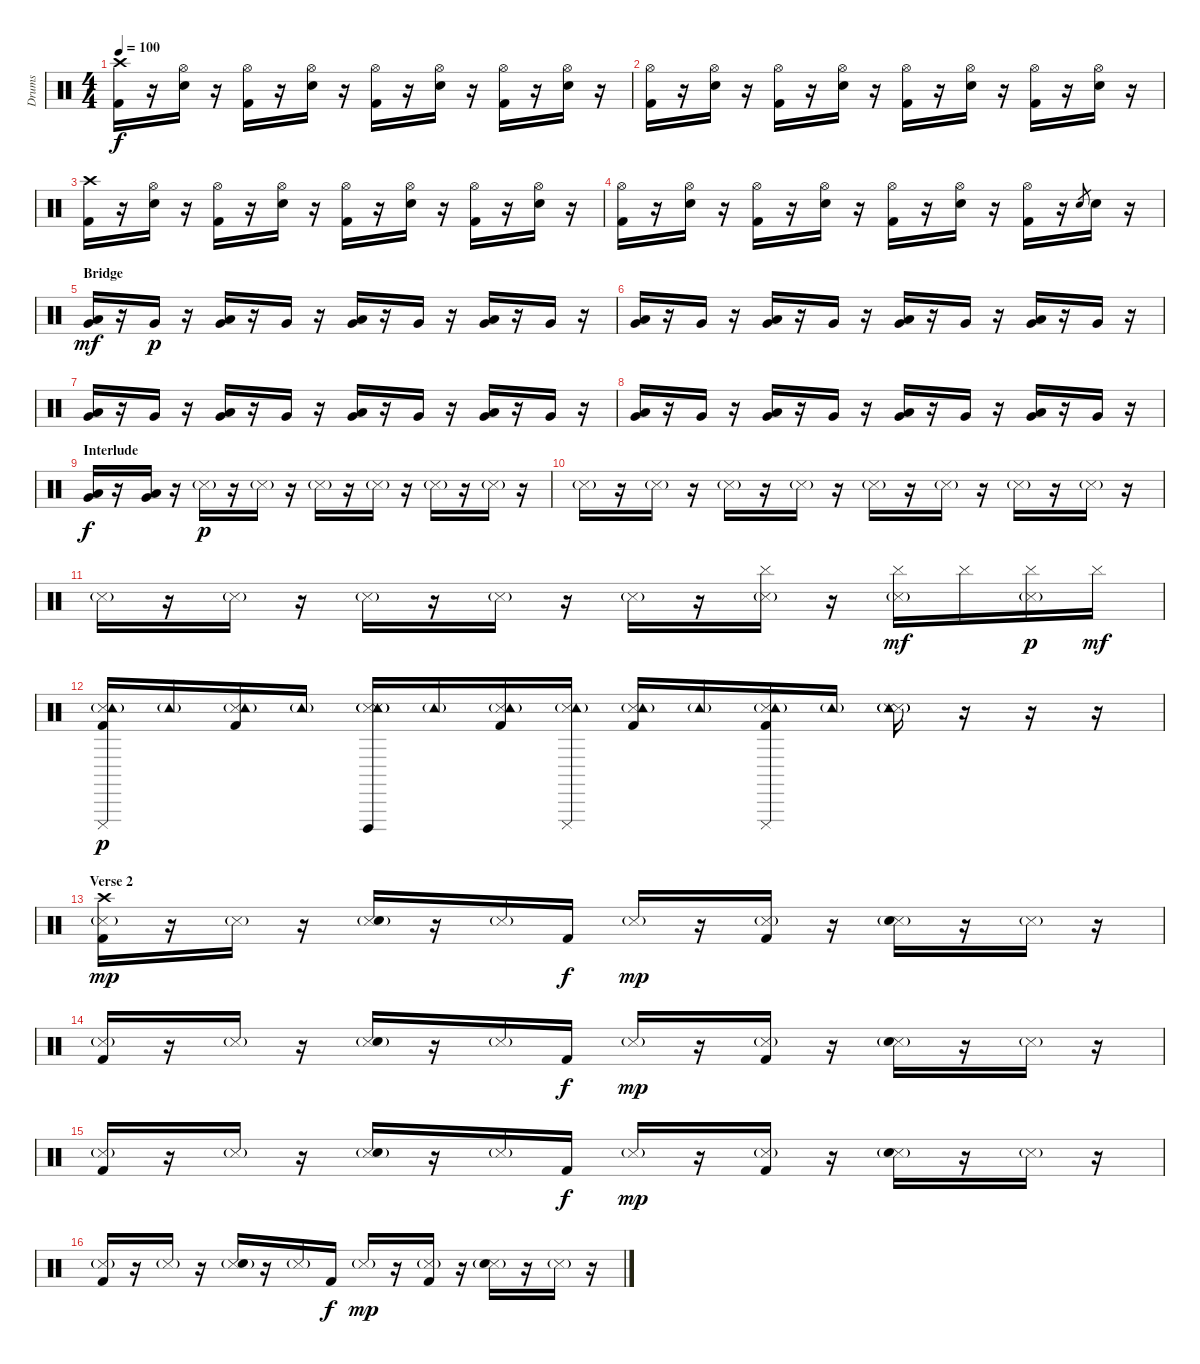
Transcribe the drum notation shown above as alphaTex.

\track ("Drums" "Drums") {instrument percussion}
\staff {score}
\articulation defaults
\ts (4 4)
\tempo 100
\clef neutral
\ks c
("Crash high (hit)" "Kick (hit) 2").16{dy f} r.16 ("Hi-Hat (open)" "Electric Snare (hit)").16 r.16 ("Hi-Hat (open)" "Kick (hit) 2").16 r.16 ("Hi-Hat (open)" "Electric Snare (hit)").16 r.16 ("Hi-Hat (open)" "Kick (hit) 2").16 r.16 ("Hi-Hat (open)" "Electric Snare (hit)").16 r.16 ("Hi-Hat (open)" "Kick (hit) 2").16 r.16 ("Hi-Hat (open)" "Electric Snare (hit)").16 r.16 |
("Hi-Hat (open)" "Kick (hit) 2").16 r.16 ("Hi-Hat (open)" "Electric Snare (hit)").16 r.16 ("Hi-Hat (open)" "Kick (hit) 2").16 r.16 ("Hi-Hat (open)" "Electric Snare (hit)").16 r.16 ("Hi-Hat (open)" "Kick (hit) 2").16 r.16 ("Hi-Hat (open)" "Electric Snare (hit)").16 r.16 ("Hi-Hat (open)" "Kick (hit) 2").16 r.16 ("Hi-Hat (open)" "Electric Snare (hit)").16 r.16 |
("Crash high (hit)" "Kick (hit) 2").16 r.16 ("Hi-Hat (open)" "Electric Snare (hit)").16 r.16 ("Hi-Hat (open)" "Kick (hit) 2").16 r.16 ("Hi-Hat (open)" "Electric Snare (hit)").16 r.16 ("Hi-Hat (open)" "Kick (hit) 2").16 r.16 ("Hi-Hat (open)" "Electric Snare (hit)").16 r.16 ("Hi-Hat (open)" "Kick (hit) 2").16 r.16 ("Hi-Hat (open)" "Electric Snare (hit)").16 r.16 |
("Hi-Hat (open)" "Kick (hit) 2").16 r.16 ("Hi-Hat (open)" "Electric Snare (hit)").16 r.16 ("Hi-Hat (open)" "Kick (hit) 2").16 r.16 ("Hi-Hat (open)" "Electric Snare (hit)").16 r.16 ("Hi-Hat (open)" "Kick (hit) 2").16 r.16 ("Hi-Hat (open)" "Electric Snare (hit)").16 r.16 ("Hi-Hat (open)" "Kick (hit) 2").16 r.16 "Electric Snare (hit)".8{gr} "Electric Snare (hit)".16 r.16 |
\section ("" "Bridge")
("Low Tom (hit)" "Very Low Tom (hit)").16{dy mf} r.16 "Very Low Tom (hit)".16{dy p} r.16 ("Low Tom (hit)" "Very Low Tom (hit)").16 r.16 "Very Low Tom (hit)".16 r.16 ("Low Tom (hit)" "Very Low Tom (hit)").16 r.16 "Very Low Tom (hit)".16 r.16 ("Low Tom (hit)" "Very Low Tom (hit)").16 r.16 "Very Low Tom (hit)".16 r.16 |
("Low Tom (hit)" "Very Low Tom (hit)").16 r.16 "Very Low Tom (hit)".16 r.16 ("Low Tom (hit)" "Very Low Tom (hit)").16 r.16 "Very Low Tom (hit)".16 r.16 ("Low Tom (hit)" "Very Low Tom (hit)").16 r.16 "Very Low Tom (hit)".16 r.16 ("Low Tom (hit)" "Very Low Tom (hit)").16 r.16 "Very Low Tom (hit)".16 r.16 |
("Low Tom (hit)" "Very Low Tom (hit)").16 r.16 "Very Low Tom (hit)".16 r.16 ("Low Tom (hit)" "Very Low Tom (hit)").16 r.16 "Very Low Tom (hit)".16 r.16 ("Low Tom (hit)" "Very Low Tom (hit)").16 r.16 "Very Low Tom (hit)".16 r.16 ("Low Tom (hit)" "Very Low Tom (hit)").16 r.16 "Very Low Tom (hit)".16 r.16 |
("Low Tom (hit)" "Very Low Tom (hit)").16 r.16 "Very Low Tom (hit)".16 r.16 ("Low Tom (hit)" "Very Low Tom (hit)").16 r.16 "Very Low Tom (hit)".16 r.16 ("Low Tom (hit)" "Very Low Tom (hit)").16 r.16 "Very Low Tom (hit)".16 r.16 ("Low Tom (hit)" "Very Low Tom (hit)").16 r.16 "Very Low Tom (hit)".16 r.16 |
\section ("" "Interlude")
("Low Tom (hit)" "Very Low Tom (hit)").16{dy f} r.16 ("Low Tom (hit)" "Very Low Tom (hit)").16 r.16 "Metronome (hit)"{g}.16{dy p} r.16 "Metronome (hit)"{g}.16 r.16 "Metronome (hit)"{g}.16 r.16 "Metronome (hit)"{g}.16 r.16 "Metronome (hit)"{g}.16 r.16 "Metronome (hit)"{g}.16 r.16 |
"Metronome (hit)"{g}.16 r.16 "Metronome (hit)"{g}.16 r.16 "Metronome (hit)"{g}.16 r.16 "Metronome (hit)"{g}.16 r.16 "Metronome (hit)"{g}.16 r.16 "Metronome (hit)"{g}.16 r.16 "Metronome (hit)"{g}.16 r.16 "Metronome (hit)"{g}.16 r.16 |
"Metronome (hit)"{g}.16 r.16 "Metronome (hit)"{g}.16 r.16 "Metronome (hit)"{g}.16 r.16 "Metronome (hit)"{g}.16 r.16 "Metronome (hit)"{g}.16 r.16 ("Metronome (hit)"{g} "Cymbal (hit)").16 r.16 ("Metronome (hit)"{g} "Cymbal (hit)").16{dy mf} "Cymbal (hit)".16 ("Metronome (hit)"{g} "Cymbal (hit)").16{dy p} "Cymbal (hit)".16{dy mf} |
("Cuica (mute)" "Metronome (hit)"{g} "Tambourine (hit)"{g} "Kick (hit) 2").16{dy p} "Tambourine (hit)"{g}.16 ("Metronome (hit)"{g} "Tambourine (hit)"{g} "Kick (hit) 2").16 "Tambourine (hit)"{g}.16 ("Cuica (open)" "Metronome (hit)"{g} "Snare (side stick) 3" "Tambourine (hit)"{g}).16 "Tambourine (hit)"{g}.16 ("Metronome (hit)"{g} "Tambourine (hit)"{g} "Kick (hit) 2").16 ("Cuica (mute)" "Snare (side stick) 3" "Tambourine (hit)"{g}).16 ("Metronome (hit)"{g} "Tambourine (hit)"{g} "Kick (hit) 2").16 "Tambourine (hit)"{g}.16 ("Cuica (mute)" "Metronome (hit)"{g} "Tambourine (hit)"{g} "Kick (hit) 2").16 "Tambourine (hit)"{g}.16 ("Metronome (hit)"{g} "Snare (side stick) 3" "Tambourine (hit)"{g}).16 r.16 r.16 r.16 |
\section ("" "Verse 2")
("Crash high (hit)" "Metronome (hit)"{g} "Kick (hit) 2").16{dy mp} r.16 "Metronome (hit)"{g}.16 r.16 ("Metronome (hit)"{g} "Electric Snare (hit)").16 r.16 "Metronome (hit)"{g}.16 "Kick (hit) 2".16{dy f} "Metronome (hit)"{g}.16{dy mp} r.16 ("Metronome (hit)"{g} "Kick (hit) 2").16 r.16 ("Metronome (hit)"{g} "Electric Snare (hit)").16 r.16 "Metronome (hit)"{g}.16 r.16 |
("Metronome (hit)"{g} "Kick (hit) 2").16 r.16 "Metronome (hit)"{g}.16 r.16 ("Metronome (hit)"{g} "Electric Snare (hit)").16 r.16 "Metronome (hit)"{g}.16 "Kick (hit) 2".16{dy f} "Metronome (hit)"{g}.16{dy mp} r.16 ("Metronome (hit)"{g} "Kick (hit) 2").16 r.16 ("Metronome (hit)"{g} "Electric Snare (hit)").16 r.16 "Metronome (hit)"{g}.16 r.16 |
("Metronome (hit)"{g} "Kick (hit) 2").16 r.16 "Metronome (hit)"{g}.16 r.16 ("Metronome (hit)"{g} "Electric Snare (hit)").16 r.16 "Metronome (hit)"{g}.16 "Kick (hit) 2".16{dy f} "Metronome (hit)"{g}.16{dy mp} r.16 ("Metronome (hit)"{g} "Kick (hit) 2").16 r.16 ("Metronome (hit)"{g} "Electric Snare (hit)").16 r.16 "Metronome (hit)"{g}.16 r.16 |
("Metronome (hit)"{g} "Kick (hit) 2").16 r.16 "Metronome (hit)"{g}.16 r.16 ("Metronome (hit)"{g} "Electric Snare (hit)").16 r.16 "Metronome (hit)"{g}.16 "Kick (hit) 2".16{dy f} "Metronome (hit)"{g}.16{dy mp} r.16 ("Metronome (hit)"{g} "Kick (hit) 2").16 r.16 ("Metronome (hit)"{g} "Electric Snare (hit)").16 r.16 "Metronome (hit)"{g}.16 r.16
